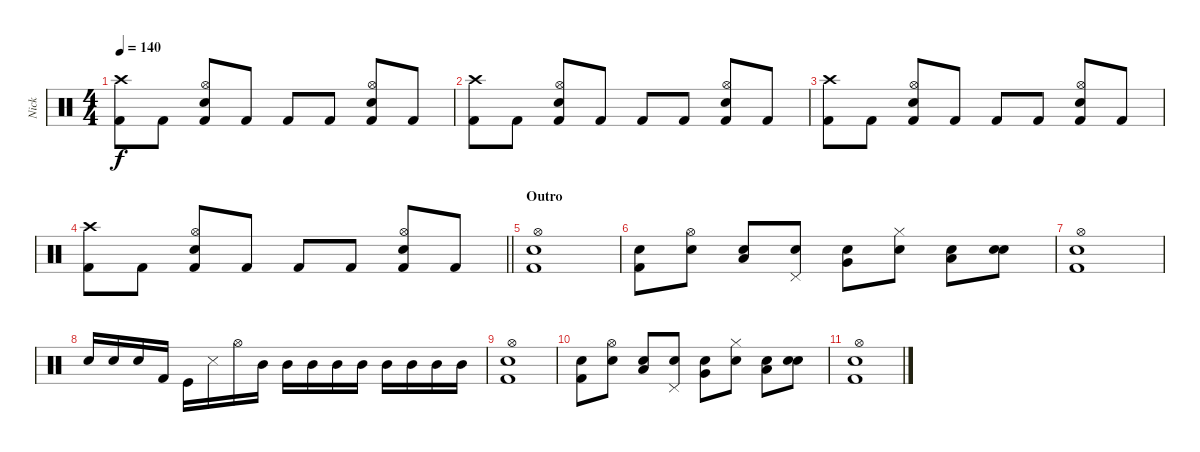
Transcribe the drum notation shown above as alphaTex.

\track ("Nick" "Nick") {instrument percussion}
\staff {score}
\articulation defaults
\ts (4 4)
\tempo 140
\clef neutral
\ks c
("Crash high (hit)" "Kick (hit) 2").8{dy f} "Kick (hit) 2".8 ("Hi-Hat (open)" "Snare (hit) 2" "Kick (hit) 2").8 "Kick (hit) 2".8 "Kick (hit) 2".8 "Kick (hit) 2".8 ("Hi-Hat (open)" "Snare (hit) 2" "Kick (hit) 2").8 "Kick (hit) 2".8 |
("Crash high (hit)" "Kick (hit) 2").8 "Kick (hit) 2".8 ("Hi-Hat (open)" "Snare (hit) 2" "Kick (hit) 2").8 "Kick (hit) 2".8 "Kick (hit) 2".8 "Kick (hit) 2".8 ("Hi-Hat (open)" "Snare (hit) 2" "Kick (hit) 2").8 "Kick (hit) 2".8 |
("Crash high (hit)" "Kick (hit) 2").8 "Kick (hit) 2".8 ("Hi-Hat (open)" "Snare (hit) 2" "Kick (hit) 2").8 "Kick (hit) 2".8 "Kick (hit) 2".8 "Kick (hit) 2".8 ("Hi-Hat (open)" "Snare (hit) 2" "Kick (hit) 2").8 "Kick (hit) 2".8 |
\barLineRight lightlight
("Crash high (hit)" "Kick (hit) 2").8 "Kick (hit) 2".8 ("Hi-Hat (open)" "Snare (hit) 2" "Kick (hit) 2").8 "Kick (hit) 2".8 "Kick (hit) 2".8 "Kick (hit) 2".8 ("Hi-Hat (open)" "Snare (hit) 2" "Kick (hit) 2").8 "Kick (hit) 2".8 |
\section ("" "Outro")
("Hi-Hat (open)" "Snare (hit) 2" "Kick (hit) 2").1 |
("Snare (hit) 2" "Kick (hit) 2").8 ("Hi-Hat (open)" "Snare (hit) 2").8 ("Low Tom (hit)" "Snare (hit) 2").8 ("Pedal Hi-Hat (hit)" "Snare (hit) 2").8 ("Very Low Tom (hit)" "Snare (hit) 2").8 ("Hi-Hat (closed)" "Snare (hit) 2").8 ("Low Floor Tom (hit)" "Snare (hit) 2").8 ("Electric Snare (hit)" "Snare (hit) 2").8 |
("Hi-Hat (open)" "Snare (hit) 2" "Kick (hit) 2").1 |
"Snare (hit) 2".16 "Snare (hit) 2".16 "Snare (hit) 2".16 "Kick (hit) 2".16 "Kick (hit)".16 "Metronome (hit)".16 "Hi-Hat (open)".16 "Mid Tom (hit)".16 "Mid Tom (hit)".16 "Mid Tom (hit)".16 "Mid Tom (hit)".16 "Mid Tom (hit)".16 "Mid Tom (hit)".16 "Mid Tom (hit)".16 "Mid Tom (hit)".16 "Mid Tom (hit)".16 |
("Hi-Hat (open)" "Snare (hit) 2" "Kick (hit) 2").1 |
("Snare (hit) 2" "Kick (hit) 2").8 ("Hi-Hat (open)" "Snare (hit) 2").8 ("Low Tom (hit)" "Snare (hit) 2").8 ("Pedal Hi-Hat (hit)" "Snare (hit) 2").8 ("Very Low Tom (hit)" "Snare (hit) 2").8 ("Hi-Hat (closed)" "Snare (hit) 2").8 ("Low Floor Tom (hit)" "Snare (hit) 2").8 ("Electric Snare (hit)" "Snare (hit) 2").8 |
("Hi-Hat (open)" "Snare (hit) 2" "Kick (hit) 2").1
